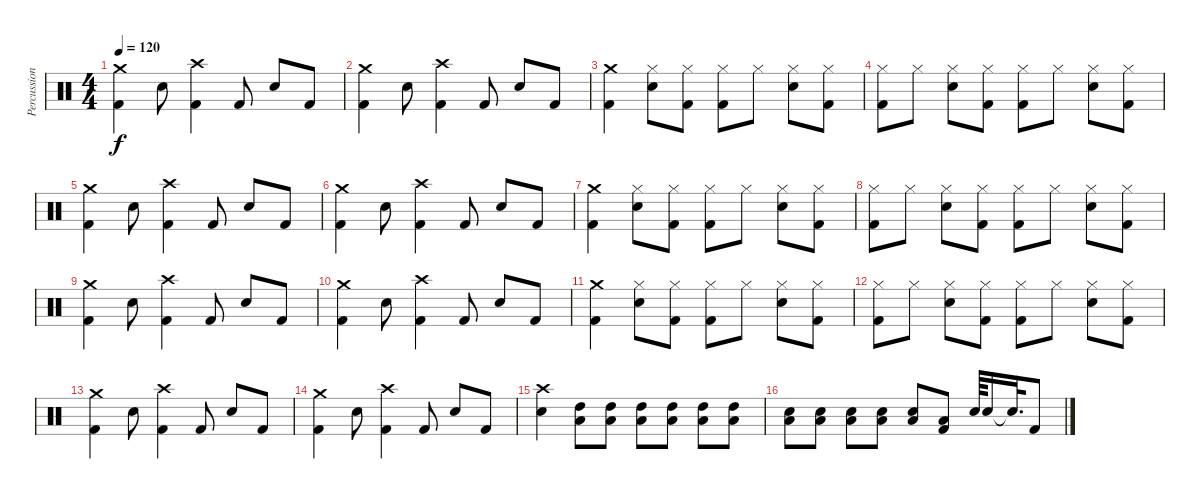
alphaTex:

\track ("Percussion" "Percussion") {instrument percussion}
\staff {score}
\articulation defaults
\ts (4 4)
\tempo 120
\clef neutral
\ks c
("Crash medium (hit)" "Kick (hit) 2").4{dy f} "Electric Snare (hit)".8 ("Crash high (hit)" "Kick (hit) 2").4 "Kick (hit) 2".8 "Electric Snare (hit)".8 "Kick (hit) 2".8 |
("Crash medium (hit)" "Kick (hit) 2").4 "Electric Snare (hit)".8 ("Crash high (hit)" "Kick (hit) 2").4 "Kick (hit) 2".8 "Electric Snare (hit)".8 "Kick (hit) 2".8 |
("Crash medium (hit)" "Kick (hit) 2").4 ("Hi-Hat (closed)" "Electric Snare (hit)").8 ("Hi-Hat (closed)" "Kick (hit) 2").8 ("Hi-Hat (closed)" "Kick (hit) 2").8 "Hi-Hat (closed)".8 ("Hi-Hat (closed)" "Electric Snare (hit)").8 ("Hi-Hat (closed)" "Kick (hit) 2").8 |
("Hi-Hat (closed)" "Kick (hit) 2").8 "Hi-Hat (closed)".8 ("Hi-Hat (closed)" "Electric Snare (hit)").8 ("Hi-Hat (closed)" "Kick (hit) 2").8 ("Hi-Hat (closed)" "Kick (hit) 2").8 "Hi-Hat (closed)".8 ("Hi-Hat (closed)" "Electric Snare (hit)").8 ("Hi-Hat (closed)" "Kick (hit) 2").8 |
("Crash medium (hit)" "Kick (hit) 2").4 "Electric Snare (hit)".8 ("Crash high (hit)" "Kick (hit) 2").4 "Kick (hit) 2".8 "Electric Snare (hit)".8 "Kick (hit) 2".8 |
("Crash medium (hit)" "Kick (hit) 2").4 "Electric Snare (hit)".8 ("Crash high (hit)" "Kick (hit) 2").4 "Kick (hit) 2".8 "Electric Snare (hit)".8 "Kick (hit) 2".8 |
("Crash medium (hit)" "Kick (hit) 2").4 ("Hi-Hat (closed)" "Electric Snare (hit)").8 ("Hi-Hat (closed)" "Kick (hit) 2").8 ("Hi-Hat (closed)" "Kick (hit) 2").8 "Hi-Hat (closed)".8 ("Hi-Hat (closed)" "Electric Snare (hit)").8 ("Hi-Hat (closed)" "Kick (hit) 2").8 |
("Hi-Hat (closed)" "Kick (hit) 2").8 "Hi-Hat (closed)".8 ("Hi-Hat (closed)" "Electric Snare (hit)").8 ("Hi-Hat (closed)" "Kick (hit) 2").8 ("Hi-Hat (closed)" "Kick (hit) 2").8 "Hi-Hat (closed)".8 ("Hi-Hat (closed)" "Electric Snare (hit)").8 ("Hi-Hat (closed)" "Kick (hit) 2").8 |
("Crash medium (hit)" "Kick (hit) 2").4 "Electric Snare (hit)".8 ("Crash high (hit)" "Kick (hit) 2").4 "Kick (hit) 2".8 "Electric Snare (hit)".8 "Kick (hit) 2".8 |
("Crash medium (hit)" "Kick (hit) 2").4 "Electric Snare (hit)".8 ("Crash high (hit)" "Kick (hit) 2").4 "Kick (hit) 2".8 "Electric Snare (hit)".8 "Kick (hit) 2".8 |
("Crash medium (hit)" "Kick (hit) 2").4 ("Hi-Hat (closed)" "Electric Snare (hit)").8 ("Hi-Hat (closed)" "Kick (hit) 2").8 ("Hi-Hat (closed)" "Kick (hit) 2").8 "Hi-Hat (closed)".8 ("Hi-Hat (closed)" "Electric Snare (hit)").8 ("Hi-Hat (closed)" "Kick (hit) 2").8 |
("Hi-Hat (closed)" "Kick (hit) 2").8 "Hi-Hat (closed)".8 ("Hi-Hat (closed)" "Electric Snare (hit)").8 ("Hi-Hat (closed)" "Kick (hit) 2").8 ("Hi-Hat (closed)" "Kick (hit) 2").8 "Hi-Hat (closed)".8 ("Hi-Hat (closed)" "Electric Snare (hit)").8 ("Hi-Hat (closed)" "Kick (hit) 2").8 |
("Crash medium (hit)" "Kick (hit) 2").4 "Electric Snare (hit)".8 ("Crash high (hit)" "Kick (hit) 2").4 "Kick (hit) 2".8 "Electric Snare (hit)".8 "Kick (hit) 2".8 |
("Crash medium (hit)" "Kick (hit) 2").4 "Electric Snare (hit)".8 ("Crash high (hit)" "Kick (hit) 2").4 "Kick (hit) 2".8 "Electric Snare (hit)".8 "Kick (hit) 2".8 |
("Crash high (hit)" "Electric Snare (hit)").4 ("Low Floor Tom (hit)" "High Tom (hit)").8 ("Low Floor Tom (hit)" "High Tom (hit)").8 ("Low Floor Tom (hit)" "High Tom (hit)").8 ("Low Floor Tom (hit)" "High Tom (hit)").8 ("Low Floor Tom (hit)" "High Tom (hit)").8 ("Low Floor Tom (hit)" "High Tom (hit)").8 |
("Low Floor Tom (hit)" "Electric Snare (hit)").8 ("Low Floor Tom (hit)" "Electric Snare (hit)").8 ("Low Floor Tom (hit)" "Electric Snare (hit)").8 ("Low Floor Tom (hit)" "Electric Snare (hit)").8 ("Low Floor Tom (hit)" "Electric Snare (hit)").8 ("Low Floor Tom (hit)" "Kick (hit) 2").8 "Electric Snare (hit)".64 "Electric Snare (hit)".16 "Snare (hit)"{t}.32{d} "Kick (hit) 2".8
